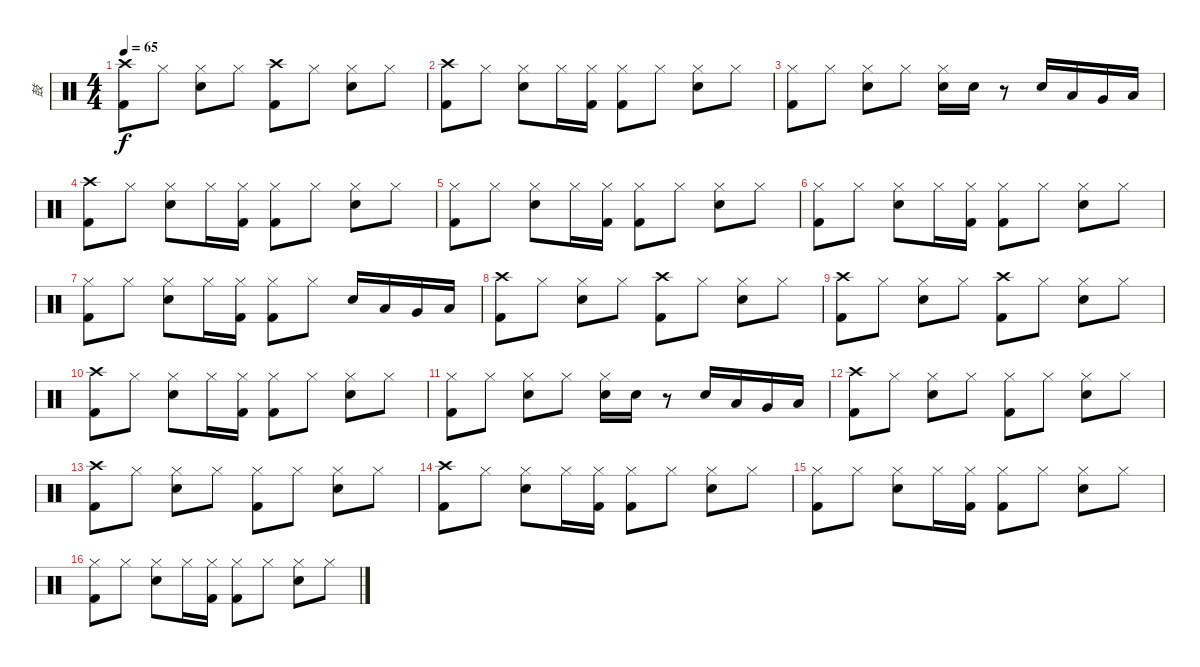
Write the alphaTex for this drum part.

\track ("鼓" "鼓") {instrument percussion}
\staff {score}
\articulation defaults
\ts (4 4)
\tempo 65
\clef neutral
\ks c
("Kick (hit) 2" "Crash high (hit)").8{dy f} "Hi-Hat (closed)".8 ("Snare (hit) 2" "Hi-Hat (closed)").8 "Hi-Hat (closed)".8 ("Kick (hit) 2" "Crash high (hit)").8 "Hi-Hat (closed)".8 ("Snare (hit) 2" "Hi-Hat (closed)").8 "Hi-Hat (closed)".8 |
("Kick (hit) 2" "Crash high (hit)").8 "Hi-Hat (closed)".8 ("Snare (hit) 2" "Hi-Hat (closed)").8 "Hi-Hat (closed)".16 ("Kick (hit) 2" "Hi-Hat (closed)").16 ("Kick (hit) 2" "Hi-Hat (closed)").8 "Hi-Hat (closed)".8 ("Snare (hit) 2" "Hi-Hat (closed)").8 "Hi-Hat (closed)".8 |
("Kick (hit) 2" "Hi-Hat (closed)").8 "Hi-Hat (closed)".8 ("Snare (hit) 2" "Hi-Hat (closed)").8 "Hi-Hat (closed)".8 ("Snare (hit) 2" "Hi-Hat (closed)").16 "Snare (hit) 2".16 r.8 "Snare (hit) 2".16 "Low Floor Tom (hit)".16 "Very Low Tom (hit)".16 "Low Tom (hit)".16 |
("Kick (hit) 2" "Crash high (hit)").8 "Hi-Hat (closed)".8 ("Snare (hit) 2" "Hi-Hat (closed)").8 "Hi-Hat (closed)".16 ("Kick (hit) 2" "Hi-Hat (closed)").16 ("Kick (hit) 2" "Hi-Hat (closed)").8 "Hi-Hat (closed)".8 ("Snare (hit) 2" "Hi-Hat (closed)").8 "Hi-Hat (closed)".8 |
("Kick (hit) 2" "Hi-Hat (closed)").8 "Hi-Hat (closed)".8 ("Snare (hit) 2" "Hi-Hat (closed)").8 "Hi-Hat (closed)".16 ("Kick (hit) 2" "Hi-Hat (closed)").16 ("Kick (hit) 2" "Hi-Hat (closed)").8 "Hi-Hat (closed)".8 ("Snare (hit) 2" "Hi-Hat (closed)").8 "Hi-Hat (closed)".8 |
("Kick (hit) 2" "Hi-Hat (closed)").8 "Hi-Hat (closed)".8 ("Snare (hit) 2" "Hi-Hat (closed)").8 "Hi-Hat (closed)".16 ("Kick (hit) 2" "Hi-Hat (closed)").16 ("Kick (hit) 2" "Hi-Hat (closed)").8 "Hi-Hat (closed)".8 ("Snare (hit) 2" "Hi-Hat (closed)").8 "Hi-Hat (closed)".8 |
("Kick (hit) 2" "Hi-Hat (closed)").8 "Hi-Hat (closed)".8 ("Snare (hit) 2" "Hi-Hat (closed)").8 "Hi-Hat (closed)".16 ("Kick (hit) 2" "Hi-Hat (closed)").16 ("Kick (hit) 2" "Hi-Hat (closed)").8 "Hi-Hat (closed)".8 "Snare (hit) 2".16 "Low Floor Tom (hit)".16 "Very Low Tom (hit)".16 "Low Tom (hit)".16 |
("Kick (hit) 2" "Crash high (hit)").8 "Hi-Hat (closed)".8 ("Snare (hit) 2" "Hi-Hat (closed)").8 "Hi-Hat (closed)".8 ("Kick (hit) 2" "Crash high (hit)").8 "Hi-Hat (closed)".8 ("Snare (hit) 2" "Hi-Hat (closed)").8 "Hi-Hat (closed)".8 |
("Kick (hit) 2" "Crash high (hit)").8 "Hi-Hat (closed)".8 ("Snare (hit) 2" "Hi-Hat (closed)").8 "Hi-Hat (closed)".8 ("Kick (hit) 2" "Crash high (hit)").8 "Hi-Hat (closed)".8 ("Snare (hit) 2" "Hi-Hat (closed)").8 "Hi-Hat (closed)".8 |
("Kick (hit) 2" "Crash high (hit)").8 "Hi-Hat (closed)".8 ("Snare (hit) 2" "Hi-Hat (closed)").8 "Hi-Hat (closed)".16 ("Kick (hit) 2" "Hi-Hat (closed)").16 ("Kick (hit) 2" "Hi-Hat (closed)").8 "Hi-Hat (closed)".8 ("Snare (hit) 2" "Hi-Hat (closed)").8 "Hi-Hat (closed)".8 |
("Kick (hit) 2" "Hi-Hat (closed)").8 "Hi-Hat (closed)".8 ("Snare (hit) 2" "Hi-Hat (closed)").8 "Hi-Hat (closed)".8 ("Snare (hit) 2" "Hi-Hat (closed)").16 "Snare (hit) 2".16 r.8 "Snare (hit) 2".16 "Low Floor Tom (hit)".16 "Very Low Tom (hit)".16 "Low Tom (hit)".16 |
("Kick (hit) 2" "Crash high (hit)").8 "Hi-Hat (closed)".8 ("Snare (hit) 2" "Hi-Hat (closed)").8 "Hi-Hat (closed)".8 ("Kick (hit) 2" "Hi-Hat (closed)").8 "Hi-Hat (closed)".8 ("Snare (hit) 2" "Hi-Hat (closed)").8 "Hi-Hat (closed)".8 |
("Kick (hit) 2" "Crash high (hit)").8 "Hi-Hat (closed)".8 ("Snare (hit) 2" "Hi-Hat (closed)").8 "Hi-Hat (closed)".8 ("Kick (hit) 2" "Hi-Hat (closed)").8 "Hi-Hat (closed)".8 ("Snare (hit) 2" "Hi-Hat (closed)").8 "Hi-Hat (closed)".8 |
("Kick (hit) 2" "Crash high (hit)").8 "Hi-Hat (closed)".8 ("Snare (hit) 2" "Hi-Hat (closed)").8 "Hi-Hat (closed)".16 ("Kick (hit) 2" "Hi-Hat (closed)").16 ("Kick (hit) 2" "Hi-Hat (closed)").8 "Hi-Hat (closed)".8 ("Snare (hit) 2" "Hi-Hat (closed)").8 "Hi-Hat (closed)".8 |
("Kick (hit) 2" "Hi-Hat (closed)").8 "Hi-Hat (closed)".8 ("Snare (hit) 2" "Hi-Hat (closed)").8 "Hi-Hat (closed)".16 ("Kick (hit) 2" "Hi-Hat (closed)").16 ("Kick (hit) 2" "Hi-Hat (closed)").8 "Hi-Hat (closed)".8 ("Snare (hit) 2" "Hi-Hat (closed)").8 "Hi-Hat (closed)".8 |
("Kick (hit) 2" "Hi-Hat (closed)").8 "Hi-Hat (closed)".8 ("Snare (hit) 2" "Hi-Hat (closed)").8 "Hi-Hat (closed)".16 ("Kick (hit) 2" "Hi-Hat (closed)").16 ("Kick (hit) 2" "Hi-Hat (closed)").8 "Hi-Hat (closed)".8 ("Snare (hit) 2" "Hi-Hat (closed)").8 "Hi-Hat (closed)".8
